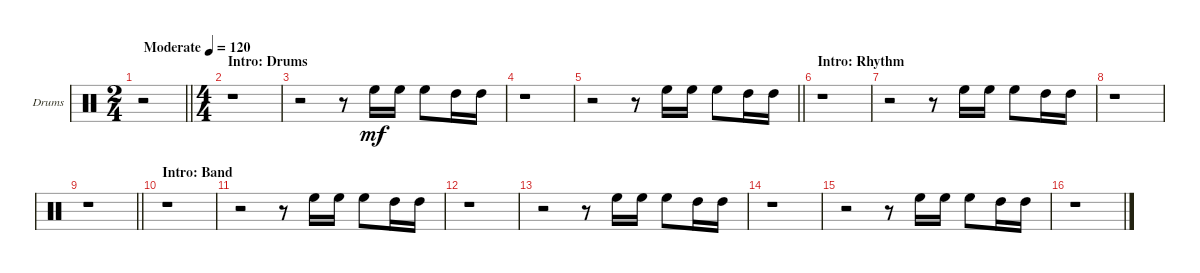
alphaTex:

\bracketExtendMode groupsimilarinstruments
\firstSystemTrackNameOrientation horizontal
\otherSystemsTrackNameOrientation horizontal
\track ("Drumkit" "Drums") {instrument percussion}
\staff {score}
\articulation defaults
\voice
\ts (2 4)
\beaming (8 2 2)
\tempo (120 "Moderate")
\clef neutral
\barLineRight lightlight
\ks c
r.2{dy mf} |
\ts (4 4)
\beaming (8 2 2 2 2)
\section ("" "Intro: Drums")
r.1 |
r.2 r.8 "High Floor Tom (hit)".16 "High Floor Tom (hit)".16 "High Floor Tom (hit)".8 "High Tom (hit)".16 "High Tom (hit)".16 |
r.1 |
\barLineRight lightlight
r.2 r.8 "High Floor Tom (hit)".16 "High Floor Tom (hit)".16 "High Floor Tom (hit)".8 "High Tom (hit)".16 "High Tom (hit)".16 |
\section ("" "Intro: Rhythm")
r.1 |
r.2 r.8 "High Floor Tom (hit)".16 "High Floor Tom (hit)".16 "High Floor Tom (hit)".8 "High Tom (hit)".16 "High Tom (hit)".16 |
r.1 |
\barLineRight lightlight
r.1 |
\section ("" "Intro: Band")
r.1 |
r.2 r.8 "High Floor Tom (hit)".16 "High Floor Tom (hit)".16 "High Floor Tom (hit)".8 "High Tom (hit)".16 "High Tom (hit)".16 |
r.1 |
r.2 r.8 "High Floor Tom (hit)".16 "High Floor Tom (hit)".16 "High Floor Tom (hit)".8 "High Tom (hit)".16 "High Tom (hit)".16 |
r.1 |
r.2 r.8 "High Floor Tom (hit)".16 "High Floor Tom (hit)".16 "High Floor Tom (hit)".8 "High Tom (hit)".16 "High Tom (hit)".16 |
r.1
\voice
\clef neutral
\ottava regular
\simile none
\barLineRight lightlight
\ks c
r.2{dy mf} |
|
|
|
\barLineRight lightlight
|
|
|
|
\barLineRight lightlight
|
|
|
|
|
|
|
